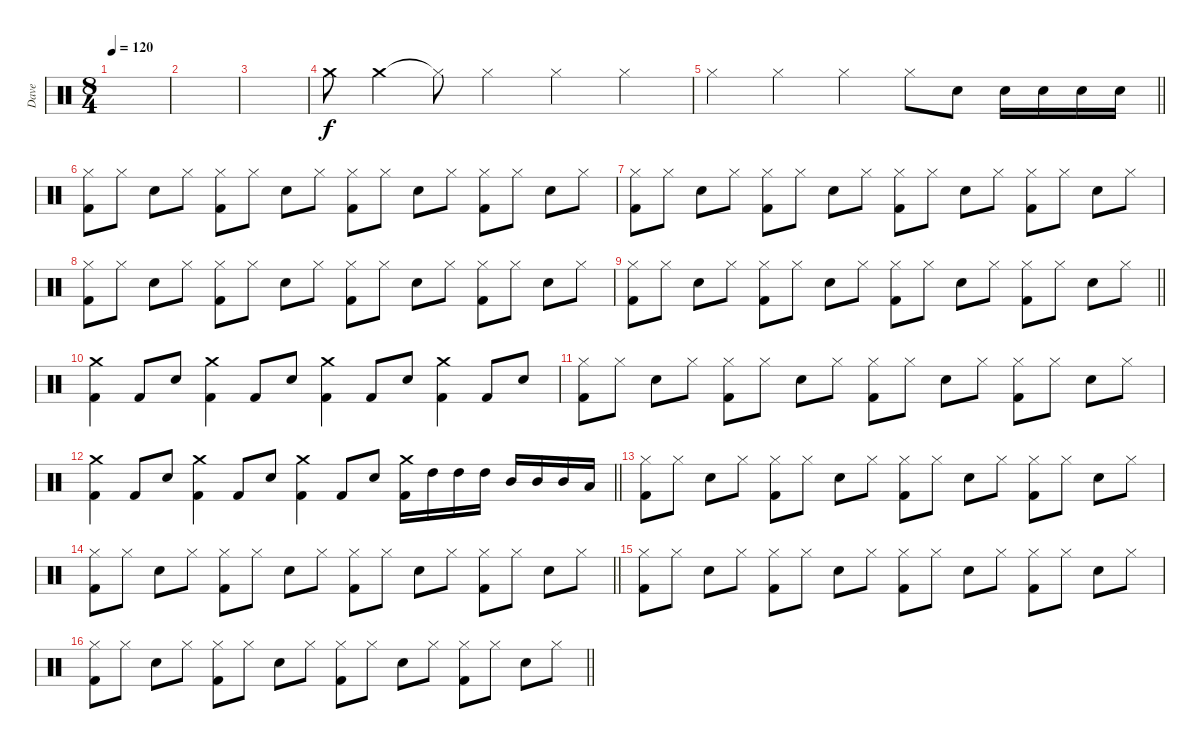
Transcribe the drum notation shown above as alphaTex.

\track ("Dave" "Dave") {instrument percussion}
\staff {score}
\articulation defaults
\ts (8 4)
\tempo 120
\clef neutral
\ks c
|
|
|
"Crash medium (hit)".8 "Crash medium (hit)".4 "Hi-Hat (closed)"{t}.8 "Hi-Hat (closed)".2 "Hi-Hat (closed)".2 "Hi-Hat (closed)".2 |
\barLineRight lightlight "Hi-Hat (closed)".2 "Hi-Hat (closed)".2 "Hi-Hat (closed)".2 "Hi-Hat (closed)".8 "Snare (hit) 2".8 "Snare (hit) 2".16 "Snare (hit) 2".16 "Snare (hit) 2".16 "Snare (hit) 2".16
|
\section ("" "")
("Hi-Hat (closed)" "Kick (hit) 2").8 "Hi-Hat (closed)".8 "Snare (hit) 2".8 "Hi-Hat (closed)".8 ("Hi-Hat (closed)" "Kick (hit) 2").8 "Hi-Hat (closed)".8 "Snare (hit) 2".8 "Hi-Hat (closed)".8 ("Hi-Hat (closed)" "Kick (hit) 2").8 "Hi-Hat (closed)".8 "Snare (hit) 2".8 "Hi-Hat (closed)".8 ("Hi-Hat (closed)" "Kick (hit) 2").8 "Hi-Hat (closed)".8 "Snare (hit) 2".8 "Hi-Hat (closed)".8 |
("Hi-Hat (closed)" "Kick (hit) 2").8 "Hi-Hat (closed)".8 "Snare (hit) 2".8 "Hi-Hat (closed)".8 ("Hi-Hat (closed)" "Kick (hit) 2").8 "Hi-Hat (closed)".8 "Snare (hit) 2".8 "Hi-Hat (closed)".8 ("Hi-Hat (closed)" "Kick (hit) 2").8 "Hi-Hat (closed)".8 "Snare (hit) 2".8 "Hi-Hat (closed)".8 ("Hi-Hat (closed)" "Kick (hit) 2").8 "Hi-Hat (closed)".8 "Snare (hit) 2".8 "Hi-Hat (closed)".8 |
("Hi-Hat (closed)" "Kick (hit) 2").8 "Hi-Hat (closed)".8 "Snare (hit) 2".8 "Hi-Hat (closed)".8 ("Hi-Hat (closed)" "Kick (hit) 2").8 "Hi-Hat (closed)".8 "Snare (hit) 2".8 "Hi-Hat (closed)".8 ("Hi-Hat (closed)" "Kick (hit) 2").8 "Hi-Hat (closed)".8 "Snare (hit) 2".8 "Hi-Hat (closed)".8 ("Hi-Hat (closed)" "Kick (hit) 2").8 "Hi-Hat (closed)".8 "Snare (hit) 2".8 "Hi-Hat (closed)".8 |
\barLineRight lightlight
("Hi-Hat (closed)" "Kick (hit) 2").8 "Hi-Hat (closed)".8 "Snare (hit) 2".8 "Hi-Hat (closed)".8 ("Hi-Hat (closed)" "Kick (hit) 2").8 "Hi-Hat (closed)".8 "Snare (hit) 2".8 "Hi-Hat (closed)".8 ("Hi-Hat (closed)" "Kick (hit) 2").8 "Hi-Hat (closed)".8 "Snare (hit) 2".8 "Hi-Hat (closed)".8 ("Hi-Hat (closed)" "Kick (hit) 2").8 "Hi-Hat (closed)".8 "Snare (hit) 2".8 "Hi-Hat (closed)".8 |
\section ("" "")
("Crash medium (hit)" "Kick (hit) 2").4 "Kick (hit) 2".8 "Snare (hit) 2".8 ("Crash medium (hit)" "Kick (hit) 2").4 "Kick (hit) 2".8 "Snare (hit) 2".8 ("Crash medium (hit)" "Kick (hit) 2").4 "Kick (hit) 2".8 "Snare (hit) 2".8 ("Crash medium (hit)" "Kick (hit) 2").4 "Kick (hit) 2".8 "Snare (hit) 2".8 |
("Hi-Hat (closed)" "Kick (hit) 2").8 "Hi-Hat (closed)".8 "Snare (hit) 2".8 "Hi-Hat (closed)".8 ("Hi-Hat (closed)" "Kick (hit) 2").8 "Hi-Hat (closed)".8 "Snare (hit) 2".8 "Hi-Hat (closed)".8 ("Hi-Hat (closed)" "Kick (hit) 2").8 "Hi-Hat (closed)".8 "Snare (hit) 2".8 "Hi-Hat (closed)".8 ("Hi-Hat (closed)" "Kick (hit) 2").8 "Hi-Hat (closed)".8 "Snare (hit) 2".8 "Hi-Hat (closed)".8 |
\barLineRight lightlight
("Crash medium (hit)" "Kick (hit) 2").4 "Kick (hit) 2".8 "Snare (hit) 2".8 ("Crash medium (hit)" "Kick (hit) 2").4 "Kick (hit) 2".8 "Snare (hit) 2".8 ("Crash medium (hit)" "Kick (hit) 2").4 "Kick (hit) 2".8 "Snare (hit) 2".8 ("Crash medium (hit)" "Kick (hit) 2").16 "High Tom (hit)".16 "High Tom (hit)".16 "High Tom (hit)".16 "Mid Tom (hit)".16 "Mid Tom (hit)".16 "Mid Tom (hit)".16 "Low Tom (hit)".16 |
\section ("" "")
("Hi-Hat (closed)" "Kick (hit) 2").8 "Hi-Hat (closed)".8 "Snare (hit) 2".8 "Hi-Hat (closed)".8 ("Hi-Hat (closed)" "Kick (hit) 2").8 "Hi-Hat (closed)".8 "Snare (hit) 2".8 "Hi-Hat (closed)".8 ("Hi-Hat (closed)" "Kick (hit) 2").8 "Hi-Hat (closed)".8 "Snare (hit) 2".8 "Hi-Hat (closed)".8 ("Hi-Hat (closed)" "Kick (hit) 2").8 "Hi-Hat (closed)".8 "Snare (hit) 2".8 "Hi-Hat (closed)".8 |
\barLineRight lightlight
("Hi-Hat (closed)" "Kick (hit) 2").8 "Hi-Hat (closed)".8 "Snare (hit) 2".8 "Hi-Hat (closed)".8 ("Hi-Hat (closed)" "Kick (hit) 2").8 "Hi-Hat (closed)".8 "Snare (hit) 2".8 "Hi-Hat (closed)".8 ("Hi-Hat (closed)" "Kick (hit) 2").8 "Hi-Hat (closed)".8 "Snare (hit) 2".8 "Hi-Hat (closed)".8 ("Hi-Hat (closed)" "Kick (hit) 2").8 "Hi-Hat (closed)".8 "Snare (hit) 2".8 "Hi-Hat (closed)".8 |
("Hi-Hat (closed)" "Kick (hit) 2").8 "Hi-Hat (closed)".8 "Snare (hit) 2".8 "Hi-Hat (closed)".8 ("Hi-Hat (closed)" "Kick (hit) 2").8 "Hi-Hat (closed)".8 "Snare (hit) 2".8 "Hi-Hat (closed)".8 ("Hi-Hat (closed)" "Kick (hit) 2").8 "Hi-Hat (closed)".8 "Snare (hit) 2".8 "Hi-Hat (closed)".8 ("Hi-Hat (closed)" "Kick (hit) 2").8 "Hi-Hat (closed)".8 "Snare (hit) 2".8 "Hi-Hat (closed)".8 |
\barLineRight lightlight
("Hi-Hat (closed)" "Kick (hit) 2").8 "Hi-Hat (closed)".8 "Snare (hit) 2".8 "Hi-Hat (closed)".8 ("Hi-Hat (closed)" "Kick (hit) 2").8 "Hi-Hat (closed)".8 "Snare (hit) 2".8 "Hi-Hat (closed)".8 ("Hi-Hat (closed)" "Kick (hit) 2").8 "Hi-Hat (closed)".8 "Snare (hit) 2".8 "Hi-Hat (closed)".8 ("Hi-Hat (closed)" "Kick (hit) 2").8 "Hi-Hat (closed)".8 "Snare (hit) 2".8 "Hi-Hat (closed)".8
